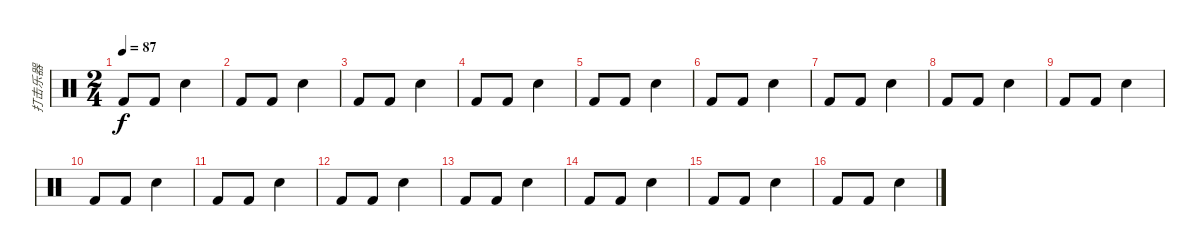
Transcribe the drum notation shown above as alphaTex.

\track ("打击乐器" "打击乐器") {instrument percussion}
\staff {score}
\articulation defaults
\ts (2 4)
\tempo 87
\clef neutral
\ks c "Kick (hit) 2".8{dy f} "Kick (hit) 2".8 "Snare (hit) 2".4
|
"Kick (hit) 2".8 "Kick (hit) 2".8 "Snare (hit) 2".4 |
"Kick (hit) 2".8 "Kick (hit) 2".8 "Snare (hit) 2".4 |
"Kick (hit) 2".8 "Kick (hit) 2".8 "Snare (hit) 2".4 |
"Kick (hit) 2".8 "Kick (hit) 2".8 "Snare (hit) 2".4 |
"Kick (hit) 2".8 "Kick (hit) 2".8 "Snare (hit) 2".4 |
"Kick (hit) 2".8 "Kick (hit) 2".8 "Snare (hit) 2".4 |
"Kick (hit) 2".8 "Kick (hit) 2".8 "Snare (hit) 2".4 |
"Kick (hit) 2".8 "Kick (hit) 2".8 "Snare (hit) 2".4 |
"Kick (hit) 2".8 "Kick (hit) 2".8 "Snare (hit) 2".4 |
"Kick (hit) 2".8 "Kick (hit) 2".8 "Snare (hit) 2".4 |
"Kick (hit) 2".8 "Kick (hit) 2".8 "Snare (hit) 2".4 |
"Kick (hit) 2".8 "Kick (hit) 2".8 "Snare (hit) 2".4 |
"Kick (hit) 2".8 "Kick (hit) 2".8 "Snare (hit) 2".4 |
"Kick (hit) 2".8 "Kick (hit) 2".8 "Snare (hit) 2".4 |
"Kick (hit) 2".8 "Kick (hit) 2".8 "Snare (hit) 2".4
